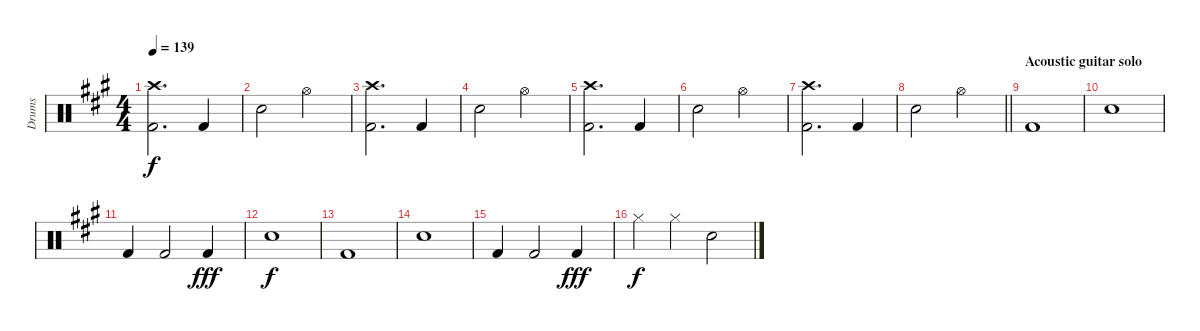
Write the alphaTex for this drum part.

\track ("Drums" "Drums") {instrument percussion}
\staff {score}
\articulation defaults
\ts (4 4)
\tempo 139
\clef neutral
\ks a
("Crash high (hit)" "Kick (hit) 2").2{d dy f} "Kick (hit) 2".4 |
"Snare (hit) 2".2 "Hi-Hat (open)".2 |
("Crash high (hit)" "Kick (hit) 2").2{d} "Kick (hit) 2".4 |
"Snare (hit) 2".2 "Hi-Hat (open)".2 |
("Crash high (hit)" "Kick (hit) 2").2{d} "Kick (hit) 2".4 |
"Snare (hit) 2".2 "Hi-Hat (open)".2 |
("Crash high (hit)" "Kick (hit) 2").2{d} "Kick (hit) 2".4 |
\barLineRight lightlight "Snare (hit) 2".2 "Hi-Hat (open)".2
|
\section ("" "Acoustic guitar solo")
"Kick (hit) 2".1 |
"Electric Snare (hit)".1 |
"Kick (hit) 2".4 "Kick (hit) 2".2 "Kick (hit) 2".4{dy fff} |
"Electric Snare (hit)".1{dy f} |
"Kick (hit) 2".1 |
"Electric Snare (hit)".1 |
"Kick (hit) 2".4 "Kick (hit) 2".2 "Kick (hit) 2".4{dy fff} |
"Hi-Hat (closed)".4{dy f} "Hi-Hat (closed)".4 "Electric Snare (hit)".2
